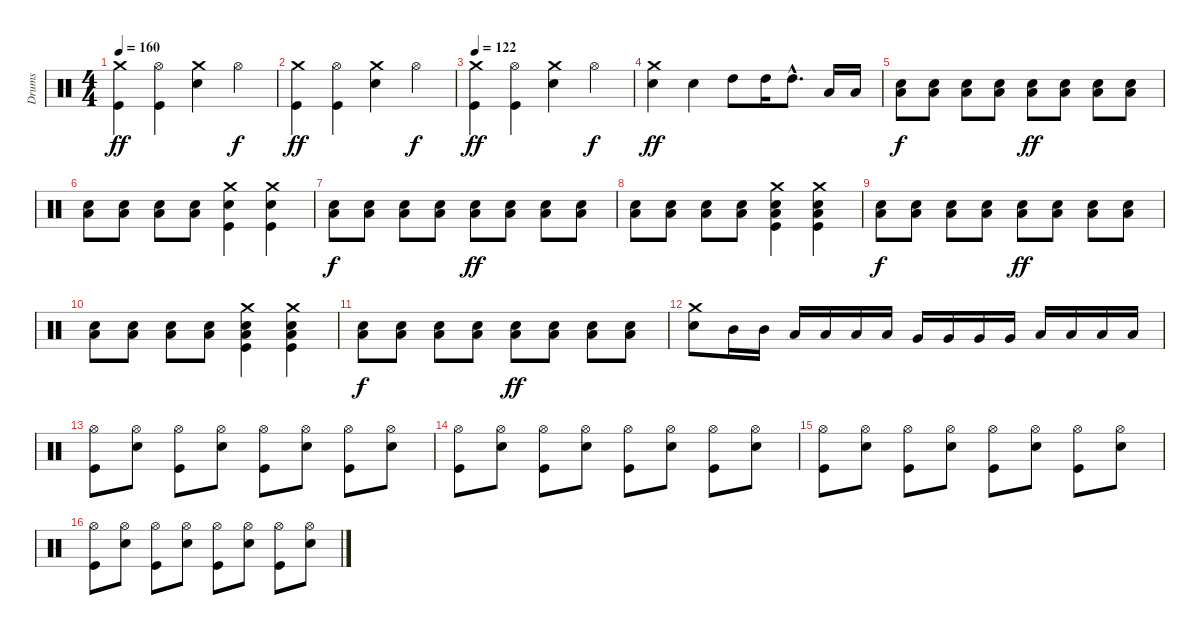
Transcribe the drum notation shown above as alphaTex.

\track ("Drums" "Drums") {instrument percussion}
\staff {score}
\articulation defaults
\ts (4 4)
\tempo 160
\clef neutral
\ks c
("Crash medium (hit)" "Kick (hit)").4{dy ff} ("Hi-Hat (open)" "Kick (hit)").4 ("Crash medium (hit)" "Electric Snare (hit)").4 "Hi-Hat (open)".4{dy f} |
("Crash medium (hit)" "Kick (hit)").4{dy ff} ("Hi-Hat (open)" "Kick (hit)").4 ("Crash medium (hit)" "Electric Snare (hit)").4 "Hi-Hat (open)".4{dy f} |
\tempo 122
("Crash medium (hit)" "Kick (hit)").4{dy ff} ("Hi-Hat (open)" "Kick (hit)").4 ("Crash medium (hit)" "Electric Snare (hit)").4 "Hi-Hat (open)".4{dy f} |
("Crash medium (hit)" "Electric Snare (hit)").4{dy ff} "Electric Snare (hit)".4 "High Tom (hit)".8 "High Tom (hit)".16 "High Tom (hit)"{hac}.8{d} "Low Tom (hit)".16 "Low Tom (hit)".16 |
("Low Floor Tom (hit)" "Electric Snare (hit)").8{dy f} ("Low Floor Tom (hit)" "Electric Snare (hit)").8 ("Low Floor Tom (hit)" "Electric Snare (hit)").8 ("Low Floor Tom (hit)" "Electric Snare (hit)").8 ("Low Floor Tom (hit)" "Electric Snare (hit)").8{dy ff} ("Low Floor Tom (hit)" "Electric Snare (hit)").8 ("Low Floor Tom (hit)" "Electric Snare (hit)").8 ("Low Floor Tom (hit)" "Electric Snare (hit)").8 |
("Low Floor Tom (hit)" "Electric Snare (hit)").8 ("Low Floor Tom (hit)" "Electric Snare (hit)").8 ("Low Floor Tom (hit)" "Electric Snare (hit)").8 ("Low Floor Tom (hit)" "Electric Snare (hit)").8 ("Crash medium (hit)" "Electric Snare (hit)" "Kick (hit)").4 ("Crash medium (hit)" "Electric Snare (hit)" "Kick (hit)").4 |
("Low Floor Tom (hit)" "Electric Snare (hit)").8{dy f} ("Low Floor Tom (hit)" "Electric Snare (hit)").8 ("Low Floor Tom (hit)" "Electric Snare (hit)").8 ("Low Floor Tom (hit)" "Electric Snare (hit)").8 ("Low Floor Tom (hit)" "Electric Snare (hit)").8{dy ff} ("Low Floor Tom (hit)" "Electric Snare (hit)").8 ("Low Floor Tom (hit)" "Electric Snare (hit)").8 ("Low Floor Tom (hit)" "Electric Snare (hit)").8 |
("Low Floor Tom (hit)" "Electric Snare (hit)").8 ("Low Floor Tom (hit)" "Electric Snare (hit)").8 ("Low Floor Tom (hit)" "Electric Snare (hit)").8 ("Low Floor Tom (hit)" "Electric Snare (hit)").8 ("Crash medium (hit)" "Low Floor Tom (hit)" "Electric Snare (hit)" "Kick (hit)").4 ("Crash medium (hit)" "Low Floor Tom (hit)" "Electric Snare (hit)" "Kick (hit)").4 |
("Low Floor Tom (hit)" "Electric Snare (hit)").8{dy f} ("Low Floor Tom (hit)" "Electric Snare (hit)").8 ("Low Floor Tom (hit)" "Electric Snare (hit)").8 ("Low Floor Tom (hit)" "Electric Snare (hit)").8 ("Low Floor Tom (hit)" "Electric Snare (hit)").8{dy ff} ("Low Floor Tom (hit)" "Electric Snare (hit)").8 ("Low Floor Tom (hit)" "Electric Snare (hit)").8 ("Low Floor Tom (hit)" "Electric Snare (hit)").8 |
("Low Floor Tom (hit)" "Electric Snare (hit)").8 ("Low Floor Tom (hit)" "Electric Snare (hit)").8 ("Low Floor Tom (hit)" "Electric Snare (hit)").8 ("Low Floor Tom (hit)" "Electric Snare (hit)").8 ("Crash medium (hit)" "Low Floor Tom (hit)" "Electric Snare (hit)" "Kick (hit)").4 ("Crash medium (hit)" "Low Floor Tom (hit)" "Electric Snare (hit)" "Kick (hit)").4 |
("Low Floor Tom (hit)" "Electric Snare (hit)").8{dy f} ("Low Floor Tom (hit)" "Electric Snare (hit)").8 ("Low Floor Tom (hit)" "Electric Snare (hit)").8 ("Low Floor Tom (hit)" "Electric Snare (hit)").8 ("Low Floor Tom (hit)" "Electric Snare (hit)").8{dy ff} ("Low Floor Tom (hit)" "Electric Snare (hit)").8 ("Low Floor Tom (hit)" "Electric Snare (hit)").8 ("Low Floor Tom (hit)" "Electric Snare (hit)").8 |
("Crash medium (hit)" "Electric Snare (hit)").8 "Mid Tom (hit)".16 "Mid Tom (hit)".16 "Low Tom (hit)".16 "Low Tom (hit)".16 "Low Tom (hit)".16 "Low Tom (hit)".16 "Very Low Tom (hit)".16 "Very Low Tom (hit)".16 "Very Low Tom (hit)".16 "Very Low Tom (hit)".16 "Low Floor Tom (hit)".16 "Low Floor Tom (hit)".16 "Low Floor Tom (hit)".16 "Low Floor Tom (hit)".16 |
("Hi-Hat (open)" "Kick (hit)").8 ("Hi-Hat (open)" "Electric Snare (hit)").8 ("Hi-Hat (open)" "Kick (hit)").8 ("Hi-Hat (open)" "Electric Snare (hit)").8 ("Hi-Hat (open)" "Kick (hit)").8 ("Hi-Hat (open)" "Electric Snare (hit)").8 ("Hi-Hat (open)" "Kick (hit)").8 ("Hi-Hat (open)" "Electric Snare (hit)").8 |
("Hi-Hat (open)" "Kick (hit)").8 ("Hi-Hat (open)" "Electric Snare (hit)").8 ("Hi-Hat (open)" "Kick (hit)").8 ("Hi-Hat (open)" "Electric Snare (hit)").8 ("Hi-Hat (open)" "Kick (hit)").8 ("Hi-Hat (open)" "Electric Snare (hit)").8 ("Hi-Hat (open)" "Kick (hit)").8 ("Hi-Hat (open)" "Electric Snare (hit)").8 |
("Hi-Hat (open)" "Kick (hit)").8 ("Hi-Hat (open)" "Electric Snare (hit)").8 ("Hi-Hat (open)" "Kick (hit)").8 ("Hi-Hat (open)" "Electric Snare (hit)").8 ("Hi-Hat (open)" "Kick (hit)").8 ("Hi-Hat (open)" "Electric Snare (hit)").8 ("Hi-Hat (open)" "Kick (hit)").8 ("Hi-Hat (open)" "Electric Snare (hit)").8 |
("Hi-Hat (open)" "Kick (hit)").8 ("Hi-Hat (open)" "Electric Snare (hit)").8 ("Hi-Hat (open)" "Kick (hit)").8 ("Hi-Hat (open)" "Electric Snare (hit)").8 ("Hi-Hat (open)" "Kick (hit)").8 ("Hi-Hat (open)" "Electric Snare (hit)").8 ("Hi-Hat (open)" "Kick (hit)").8 ("Hi-Hat (open)" "Electric Snare (hit)").8
